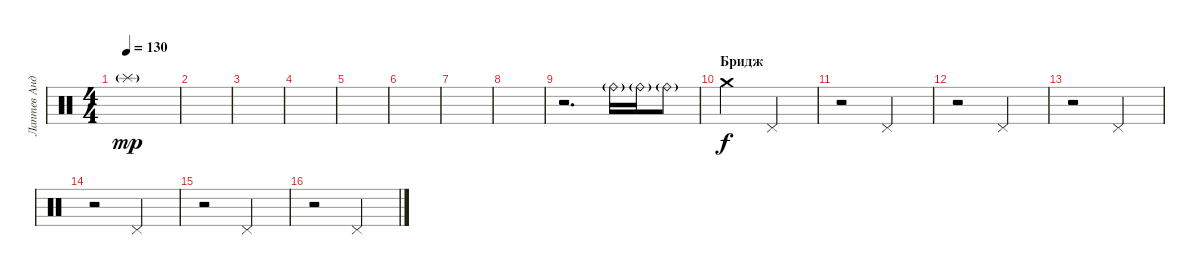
\track ("Лаптев Андрей" "Лаптев Анд") {instrument percussion}
\staff {score}
\articulation defaults
\ts (4 4)
\tempo 130
\clef neutral
\ks c "Splash (hit)"{g}.1{dy mp}
|
|
|
|
|
|
|
|
r.2{d} "Ride (bell)"{g}.16 "Ride (bell)"{g}.16 "Ride (bell)"{g}.8 |
\section ("" "Бридж")
"Crash medium (hit)".2{dy f} "Pedal Hi-Hat (hit)".2 |
r.2 "Pedal Hi-Hat (hit)".2 |
r.2 "Pedal Hi-Hat (hit)".2 |
r.2 "Pedal Hi-Hat (hit)".2 |
r.2 "Pedal Hi-Hat (hit)".2 |
r.2 "Pedal Hi-Hat (hit)".2 |
r.2 "Pedal Hi-Hat (hit)".2
